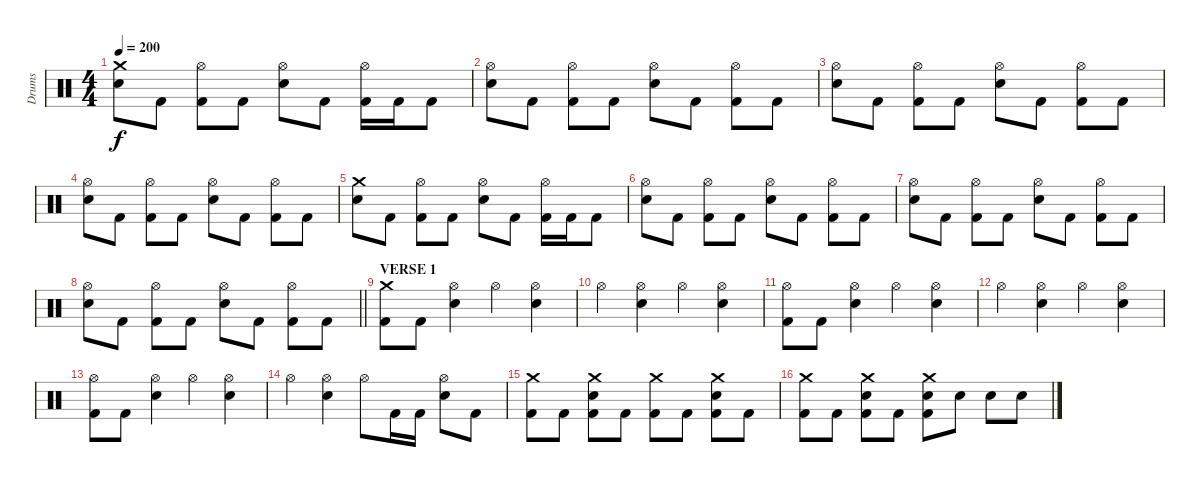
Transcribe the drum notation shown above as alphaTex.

\track ("Drums" "Drums") {instrument percussion}
\staff {score}
\articulation defaults
\ts (4 4)
\tempo 200
\clef neutral
\ks c
("Crash medium (hit)" "Electric Snare (hit)").8{dy f} "Kick (hit) 2".8 ("Hi-Hat (open)" "Kick (hit) 2").8 "Kick (hit) 2".8 ("Hi-Hat (open)" "Electric Snare (hit)").8 "Kick (hit) 2".8 ("Hi-Hat (open)" "Kick (hit) 2").16 "Kick (hit) 2".16 "Kick (hit) 2".8 |
("Hi-Hat (open)" "Electric Snare (hit)").8 "Kick (hit) 2".8 ("Hi-Hat (open)" "Kick (hit) 2").8 "Kick (hit) 2".8 ("Hi-Hat (open)" "Electric Snare (hit)").8 "Kick (hit) 2".8 ("Hi-Hat (open)" "Kick (hit) 2").8 "Kick (hit) 2".8 |
("Hi-Hat (open)" "Electric Snare (hit)").8 "Kick (hit) 2".8 ("Hi-Hat (open)" "Kick (hit) 2").8 "Kick (hit) 2".8 ("Hi-Hat (open)" "Electric Snare (hit)").8 "Kick (hit) 2".8 ("Hi-Hat (open)" "Kick (hit) 2").8 "Kick (hit) 2".8 |
("Hi-Hat (open)" "Electric Snare (hit)").8 "Kick (hit) 2".8 ("Hi-Hat (open)" "Kick (hit) 2").8 "Kick (hit) 2".8 ("Hi-Hat (open)" "Electric Snare (hit)").8 "Kick (hit) 2".8 ("Hi-Hat (open)" "Kick (hit) 2").8 "Kick (hit) 2".8 |
("Crash medium (hit)" "Electric Snare (hit)").8 "Kick (hit) 2".8 ("Hi-Hat (open)" "Kick (hit) 2").8 "Kick (hit) 2".8 ("Hi-Hat (open)" "Electric Snare (hit)").8 "Kick (hit) 2".8 ("Hi-Hat (open)" "Kick (hit) 2").16 "Kick (hit) 2".16 "Kick (hit) 2".8 |
("Hi-Hat (open)" "Electric Snare (hit)").8 "Kick (hit) 2".8 ("Hi-Hat (open)" "Kick (hit) 2").8 "Kick (hit) 2".8 ("Hi-Hat (open)" "Electric Snare (hit)").8 "Kick (hit) 2".8 ("Hi-Hat (open)" "Kick (hit) 2").8 "Kick (hit) 2".8 |
("Hi-Hat (open)" "Electric Snare (hit)").8 "Kick (hit) 2".8 ("Hi-Hat (open)" "Kick (hit) 2").8 "Kick (hit) 2".8 ("Hi-Hat (open)" "Electric Snare (hit)").8 "Kick (hit) 2".8 ("Hi-Hat (open)" "Kick (hit) 2").8 "Kick (hit) 2".8 |
\barLineRight lightlight
("Hi-Hat (open)" "Electric Snare (hit)").8 "Kick (hit) 2".8 ("Hi-Hat (open)" "Kick (hit) 2").8 "Kick (hit) 2".8 ("Hi-Hat (open)" "Electric Snare (hit)").8 "Kick (hit) 2".8 ("Hi-Hat (open)" "Kick (hit) 2").8 "Kick (hit) 2".8 |
\section ("" "VERSE 1")
("Crash medium (hit)" "Kick (hit) 2").8 "Kick (hit) 2".8 ("Hi-Hat (open)" "Electric Snare (hit)").4 "Hi-Hat (open)".4 ("Hi-Hat (open)" "Electric Snare (hit)").4 |
"Hi-Hat (open)".4 ("Hi-Hat (open)" "Electric Snare (hit)").4 "Hi-Hat (open)".4 ("Hi-Hat (open)" "Electric Snare (hit)").4 |
("Hi-Hat (open)" "Kick (hit) 2").8 "Kick (hit) 2".8 ("Hi-Hat (open)" "Electric Snare (hit)").4 "Hi-Hat (open)".4 ("Hi-Hat (open)" "Electric Snare (hit)").4 |
"Hi-Hat (open)".4 ("Hi-Hat (open)" "Electric Snare (hit)").4 "Hi-Hat (open)".4 ("Hi-Hat (open)" "Electric Snare (hit)").4 |
("Hi-Hat (open)" "Kick (hit) 2").8 "Kick (hit) 2".8 ("Hi-Hat (open)" "Electric Snare (hit)").4 "Hi-Hat (open)".4 ("Hi-Hat (open)" "Electric Snare (hit)").4 |
"Hi-Hat (open)".4 ("Hi-Hat (open)" "Electric Snare (hit)").4 "Hi-Hat (open)".8 "Kick (hit) 2".16 "Kick (hit) 2".16 ("Hi-Hat (open)" "Electric Snare (hit)").8 "Kick (hit) 2".8 |
("Crash medium (hit)" "Kick (hit) 2").8 "Kick (hit) 2".8 ("Crash medium (hit)" "Electric Snare (hit)" "Kick (hit) 2").8 "Kick (hit) 2".8 ("Crash medium (hit)" "Kick (hit) 2").8 "Kick (hit) 2".8 ("Crash medium (hit)" "Electric Snare (hit)" "Kick (hit) 2").8 "Kick (hit) 2".8 |
("Crash medium (hit)" "Kick (hit) 2").8 "Kick (hit) 2".8 ("Crash medium (hit)" "Electric Snare (hit)" "Kick (hit) 2").8 "Kick (hit) 2".8 ("Crash medium (hit)" "Electric Snare (hit)" "Kick (hit) 2").8 "Electric Snare (hit)".8 "Electric Snare (hit)".8 "Electric Snare (hit)".8
